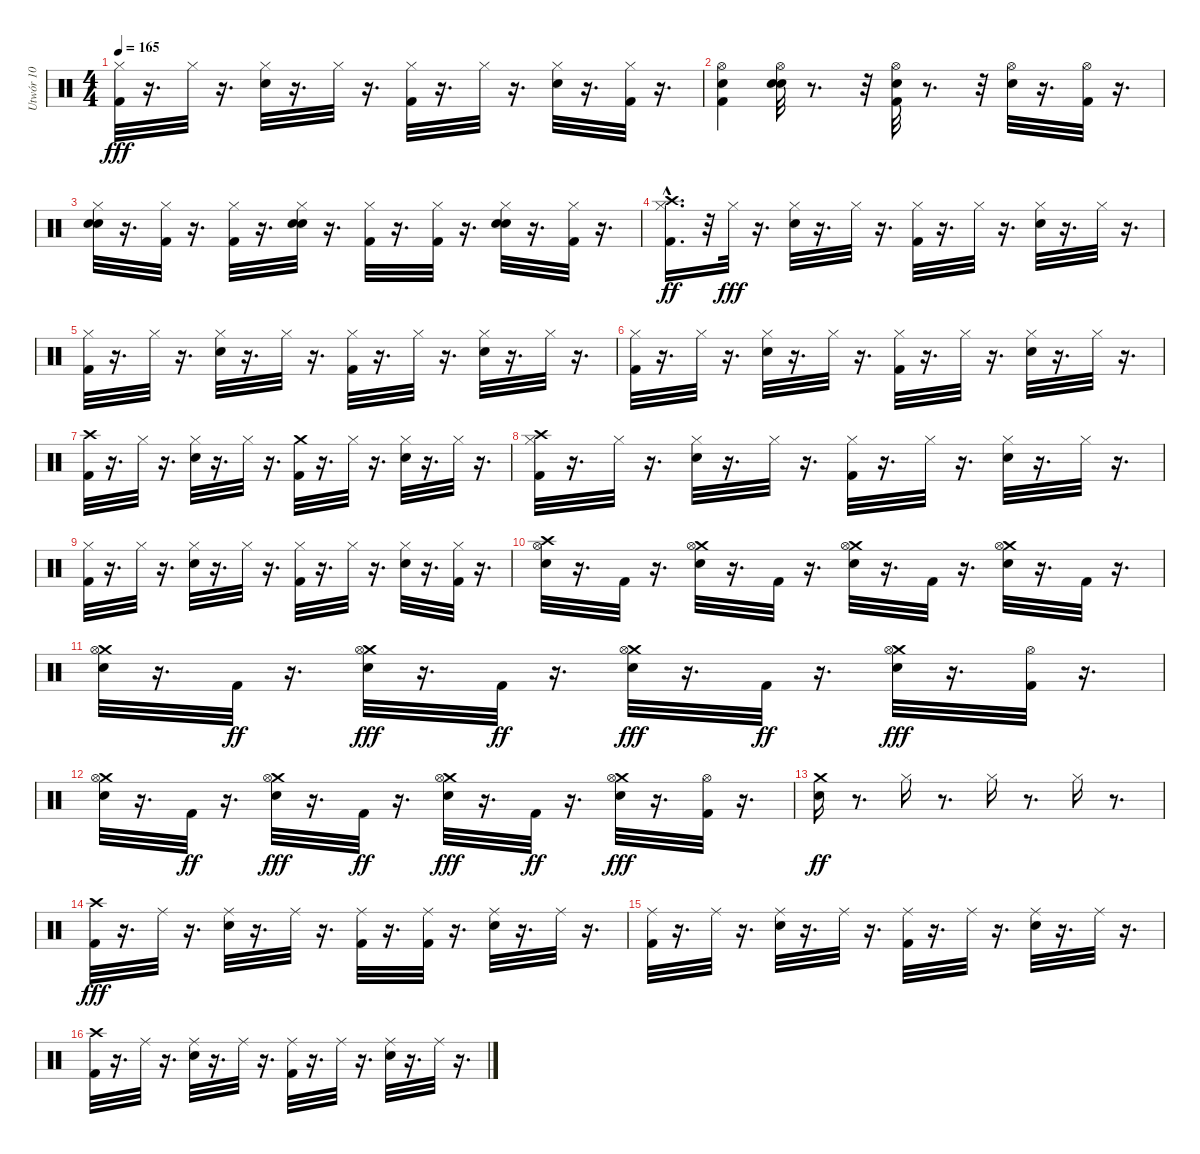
\track ("Utwór 10" "Utwór 10") {instrument percussion}
\staff {score}
\articulation defaults
\ts (4 4)
\tempo 165
\clef neutral
\ks c
("Hi-Hat (closed)" "Kick (hit) 2").32{dy fff} r.16{d} "Hi-Hat (closed)".32 r.16{d} ("Hi-Hat (closed)" "Electric Snare (hit)").32 r.16{d} "Hi-Hat (closed)".32 r.16{d} ("Hi-Hat (closed)" "Kick (hit) 2").32 r.16{d} "Hi-Hat (closed)".32 r.16{d} ("Hi-Hat (closed)" "Electric Snare (hit)").32 r.16{d} ("Kick (hit) 2" "Hi-Hat (closed)").32 r.16{d} |
("Electric Snare (hit)" "Hi-Hat (open)" "Kick (hit) 2").4 ("Electric Snare (hit)" "Hi-Hat (open)" "Electric Snare (hit)").32 r.8{d} r.32 ("Electric Snare (hit)" "Hi-Hat (open)" "Kick (hit) 2").32 r.8{d} r.32 ("Hi-Hat (open)" "Electric Snare (hit)").32 r.16{d} ("Kick (hit) 2" "Hi-Hat (open)").32 r.16{d} |
("Electric Snare (hit)" "Hi-Hat (closed)" "Electric Snare (hit)").32 r.16{d} ("Kick (hit) 2" "Hi-Hat (closed)").32 r.16{d} ("Hi-Hat (closed)" "Kick (hit) 2").32 r.16{d} ("Electric Snare (hit)" "Electric Snare (hit)" "Hi-Hat (closed)").32 r.16{d} ("Hi-Hat (closed)" "Kick (hit) 2").32 r.16{d} ("Hi-Hat (closed)" "Kick (hit) 2").32 r.16{d} ("Electric Snare (hit)" "Hi-Hat (closed)" "Electric Snare (hit)").32 r.16{d} ("Kick (hit) 2" "Hi-Hat (closed)").32 r.16{d} |
("Kick (hit) 2" "Hi-Hat (closed)" "Crash high (hit)"{hac}).16{d dy ff} r.32 "Hi-Hat (closed)".32{dy fff} r.16{d} ("Hi-Hat (closed)" "Electric Snare (hit)").32 r.16{d} "Hi-Hat (closed)".32 r.16{d} ("Hi-Hat (closed)" "Kick (hit) 2").32 r.16{d} "Hi-Hat (closed)".32 r.16{d} ("Hi-Hat (closed)" "Electric Snare (hit)").32 r.16{d} "Hi-Hat (closed)".32 r.16{d} |
("Hi-Hat (closed)" "Kick (hit) 2").32 r.16{d} "Hi-Hat (closed)".32 r.16{d} ("Hi-Hat (closed)" "Electric Snare (hit)").32 r.16{d} "Hi-Hat (closed)".32 r.16{d} ("Hi-Hat (closed)" "Kick (hit) 2").32 r.16{d} "Hi-Hat (closed)".32 r.16{d} ("Hi-Hat (closed)" "Electric Snare (hit)").32 r.16{d} "Hi-Hat (closed)".32 r.16{d} |
("Hi-Hat (closed)" "Kick (hit) 2").32 r.16{d} "Hi-Hat (closed)".32 r.16{d} ("Hi-Hat (closed)" "Electric Snare (hit)").32 r.16{d} "Hi-Hat (closed)".32 r.16{d} ("Hi-Hat (closed)" "Kick (hit) 2").32 r.16{d} "Hi-Hat (closed)".32 r.16{d} ("Hi-Hat (closed)" "Electric Snare (hit)").32 r.16{d} "Hi-Hat (closed)".32 r.16{d} |
("Crash high (hit)" "Kick (hit) 2").32 r.16{d} "Hi-Hat (closed)".32 r.16{d} ("Hi-Hat (closed)" "Electric Snare (hit)").32 r.16{d} "Hi-Hat (closed)".32 r.16{d} ("Crash medium (hit)" "Kick (hit) 2").32 r.16{d} "Hi-Hat (closed)".32 r.16{d} ("Hi-Hat (closed)" "Electric Snare (hit)").32 r.16{d} "Hi-Hat (closed)".32 r.16{d} |
("Crash high (hit)" "Hi-Hat (closed)" "Kick (hit) 2").32 r.16{d} "Hi-Hat (closed)".32 r.16{d} ("Hi-Hat (closed)" "Electric Snare (hit)").32 r.16{d} "Hi-Hat (closed)".32 r.16{d} ("Hi-Hat (closed)" "Kick (hit) 2").32 r.16{d} "Hi-Hat (closed)".32 r.16{d} ("Hi-Hat (closed)" "Electric Snare (hit)").32 r.16{d} "Hi-Hat (closed)".32 r.16{d} |
("Hi-Hat (closed)" "Kick (hit) 2").32 r.16{d} "Hi-Hat (closed)".32 r.16{d} ("Hi-Hat (closed)" "Electric Snare (hit)").32 r.16{d} "Hi-Hat (closed)".32 r.16{d} ("Hi-Hat (closed)" "Kick (hit) 2").32 r.16{d} "Hi-Hat (closed)".32 r.16{d} ("Hi-Hat (closed)" "Electric Snare (hit)").32 r.16{d} ("Kick (hit) 2" "Hi-Hat (closed)").32 r.16{d} |
("Electric Snare (hit)" "Crash high (hit)" "Hi-Hat (open)").32 r.16{d} "Kick (hit) 2".32 r.16{d} ("Crash medium (hit)" "Hi-Hat (open)" "Electric Snare (hit)").32 r.16{d} "Kick (hit) 2".32 r.16{d} ("Crash medium (hit)" "Electric Snare (hit)" "Hi-Hat (open)").32 r.16{d} "Kick (hit) 2".32 r.16{d} ("Crash medium (hit)" "Hi-Hat (open)" "Electric Snare (hit)").32 r.16{d} "Kick (hit) 2".32 r.16{d} |
("Crash medium (hit)" "Electric Snare (hit)" "Hi-Hat (open)").32 r.16{d} "Kick (hit) 2".32{dy ff} r.16{d} ("Crash medium (hit)" "Hi-Hat (open)" "Electric Snare (hit)").32{dy fff} r.16{d} "Kick (hit) 2".32{dy ff} r.16{d} ("Crash medium (hit)" "Electric Snare (hit)" "Hi-Hat (open)").32{dy fff} r.16{d} "Kick (hit) 2".32{dy ff} r.16{d} ("Crash medium (hit)" "Hi-Hat (open)" "Electric Snare (hit)").32{dy fff} r.16{d} ("Kick (hit) 2" "Hi-Hat (open)").32 r.16{d} |
("Crash medium (hit)" "Electric Snare (hit)" "Hi-Hat (open)").32 r.16{d} "Kick (hit) 2".32{dy ff} r.16{d} ("Crash medium (hit)" "Hi-Hat (open)" "Electric Snare (hit)").32{dy fff} r.16{d} "Kick (hit) 2".32{dy ff} r.16{d} ("Crash medium (hit)" "Electric Snare (hit)" "Hi-Hat (open)").32{dy fff} r.16{d} "Kick (hit) 2".32{dy ff} r.16{d} ("Crash medium (hit)" "Hi-Hat (open)" "Electric Snare (hit)").32{dy fff} r.16{d} ("Kick (hit) 2" "Hi-Hat (open)").32 r.16{d} |
("Crash medium (hit)" "Snare (hit) 2").16{dy ff} r.8{d} "Hi-Hat (closed)".16 r.8{d} "Hi-Hat (closed)".16 r.8{d} "Hi-Hat (closed)".16 r.8{d} |
("Crash high (hit)" "Kick (hit) 2").32{dy fff} r.16{d} "Ride (middle)".32 r.16{d} ("Ride (middle)" "Electric Snare (hit)").32 r.16{d} "Ride (middle)".32 r.16{d} ("Ride (middle)" "Kick (hit) 2").32 r.16{d} ("Ride (middle)" "Kick (hit) 2").32 r.16{d} ("Ride (middle)" "Electric Snare (hit)").32 r.16{d} "Ride (middle)".32 r.16{d} |
("Ride (middle)" "Kick (hit) 2").32 r.16{d} "Ride (middle)".32 r.16{d} ("Ride (middle)" "Electric Snare (hit)").32 r.16{d} "Ride (middle)".32 r.16{d} ("Ride (middle)" "Kick (hit) 2").32 r.16{d} "Ride (middle)".32 r.16{d} ("Ride (middle)" "Electric Snare (hit)").32 r.16{d} "Ride (middle)".32 r.16{d} |
("Crash high (hit)" "Kick (hit) 2").32 r.16{d} "Ride (middle)".32 r.16{d} ("Ride (middle)" "Electric Snare (hit)").32 r.16{d} "Ride (middle)".32 r.16{d} ("Ride (middle)" "Kick (hit) 2").32 r.16{d} "Ride (middle)".32 r.16{d} ("Ride (middle)" "Electric Snare (hit)").32 r.16{d} "Ride (middle)".32 r.16{d}
